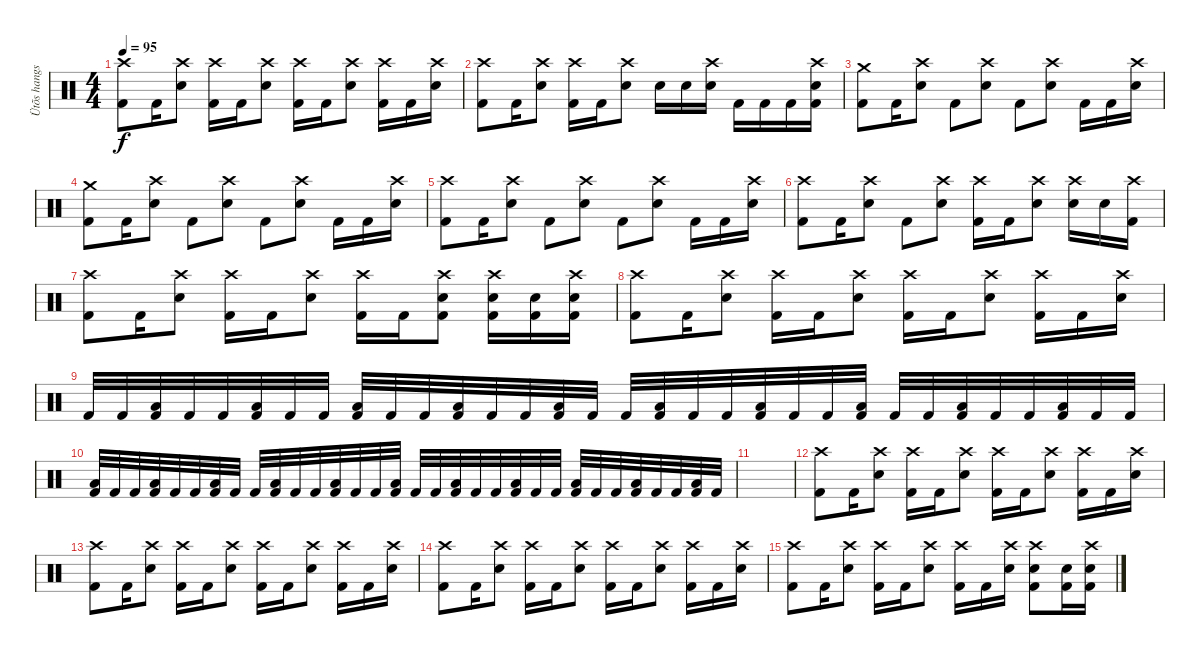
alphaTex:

\track ("Ütõs hangszer" "Ütõs hangs") {instrument percussion}
\staff {score}
\articulation defaults
\ts (4 4)
\tempo 95
\clef neutral
\ks c
("Crash high (hit)" "Kick (hit) 2").8{dy f} "Kick (hit) 2".16 ("Crash high (hit)" "Electric Snare (hit)").8 ("Crash high (hit)" "Kick (hit) 2").16 "Kick (hit) 2".16 ("Crash high (hit)" "Electric Snare (hit)").8 ("Crash high (hit)" "Kick (hit) 2").16 "Kick (hit) 2".16 ("Crash high (hit)" "Electric Snare (hit)").8 ("Crash high (hit)" "Kick (hit) 2").16 "Kick (hit) 2".16 ("Crash high (hit)" "Electric Snare (hit)").16 |
("Crash high (hit)" "Kick (hit) 2").8 "Kick (hit) 2".16 ("Crash high (hit)" "Electric Snare (hit)").8 ("Crash high (hit)" "Kick (hit) 2").16 "Kick (hit) 2".16 ("Crash high (hit)" "Electric Snare (hit)").8 "Electric Snare (hit)".16 "Electric Snare (hit)".16 ("Crash high (hit)" "Electric Snare (hit)").16 "Kick (hit) 2".16 "Kick (hit) 2".16 "Kick (hit) 2".16 ("Crash high (hit)" "Electric Snare (hit)" "Kick (hit) 2").16 |
("Crash medium (hit)" "Kick (hit) 2").8 "Kick (hit) 2".16 ("Crash high (hit)" "Electric Snare (hit)").8 "Kick (hit) 2".8 ("Crash high (hit)" "Electric Snare (hit)").8 "Kick (hit) 2".8 ("Crash high (hit)" "Electric Snare (hit)").8 "Kick (hit) 2".16 "Kick (hit) 2".16 ("Crash high (hit)" "Electric Snare (hit)").16 |
("Crash medium (hit)" "Kick (hit) 2").8 "Kick (hit) 2".16 ("Crash high (hit)" "Electric Snare (hit)").8 "Kick (hit) 2".8 ("Crash high (hit)" "Electric Snare (hit)").8 "Kick (hit) 2".8 ("Crash high (hit)" "Electric Snare (hit)").8 "Kick (hit) 2".16 "Kick (hit) 2".16 ("Crash high (hit)" "Electric Snare (hit)").16 |
("Crash high (hit)" "Kick (hit) 2").8 "Kick (hit) 2".16 ("Crash high (hit)" "Electric Snare (hit)").8 "Kick (hit) 2".8 ("Crash high (hit)" "Electric Snare (hit)").8 "Kick (hit) 2".8 ("Crash high (hit)" "Electric Snare (hit)").8 "Kick (hit) 2".16 "Kick (hit) 2".16 ("Crash high (hit)" "Electric Snare (hit)").16 |
("Crash high (hit)" "Kick (hit) 2").8 "Kick (hit) 2".16 ("Crash high (hit)" "Electric Snare (hit)").8 "Kick (hit) 2".8 ("Crash high (hit)" "Electric Snare (hit)").8 ("Crash high (hit)" "Kick (hit) 2").16 "Kick (hit) 2".16 ("Crash high (hit)" "Electric Snare (hit)").8 ("Crash high (hit)" "Electric Snare (hit)").16 "Electric Snare (hit)".16 ("Crash high (hit)" "Kick (hit) 2").16 |
("Crash high (hit)" "Kick (hit) 2").8 "Kick (hit) 2".16 ("Crash high (hit)" "Electric Snare (hit)").8 ("Crash high (hit)" "Kick (hit) 2").16 "Kick (hit) 2".16 ("Crash high (hit)" "Electric Snare (hit)").8 ("Crash high (hit)" "Kick (hit) 2").16 "Kick (hit) 2".16 ("Crash high (hit)" "Electric Snare (hit)" "Kick (hit) 2").8 ("Crash high (hit)" "Electric Snare (hit)" "Kick (hit) 2").16 ("Electric Snare (hit)" "Kick (hit) 2").16 ("Crash high (hit)" "Electric Snare (hit)" "Kick (hit) 2").16 |
("Crash high (hit)" "Kick (hit) 2").8 "Kick (hit) 2".16 ("Crash high (hit)" "Electric Snare (hit)").8 ("Crash high (hit)" "Kick (hit) 2").16 "Kick (hit) 2".16 ("Crash high (hit)" "Electric Snare (hit)").8 ("Crash high (hit)" "Kick (hit) 2").16 "Kick (hit) 2".16 ("Crash high (hit)" "Electric Snare (hit)").8 ("Crash high (hit)" "Kick (hit) 2").16 "Kick (hit) 2".16 ("Crash high (hit)" "Electric Snare (hit)").16 |
"Kick (hit) 2".32 "Kick (hit) 2".32 ("Low Floor Tom (hit)" "Kick (hit) 2").32 "Kick (hit) 2".32 "Kick (hit) 2".32 ("Low Floor Tom (hit)" "Kick (hit) 2").32 "Kick (hit) 2".32 "Kick (hit) 2".32 ("Low Floor Tom (hit)" "Kick (hit) 2").32 "Kick (hit) 2".32 "Kick (hit) 2".32 ("Low Floor Tom (hit)" "Kick (hit) 2").32 "Kick (hit) 2".32 "Kick (hit) 2".32 ("Low Floor Tom (hit)" "Kick (hit) 2").32 "Kick (hit) 2".32 "Kick (hit) 2".32 ("Low Floor Tom (hit)" "Kick (hit) 2").32 "Kick (hit) 2".32 "Kick (hit) 2".32 ("Low Floor Tom (hit)" "Kick (hit) 2").32 "Kick (hit) 2".32 "Kick (hit) 2".32 ("Low Floor Tom (hit)" "Kick (hit) 2").32 "Kick (hit) 2".32 "Kick (hit) 2".32 ("Low Floor Tom (hit)" "Kick (hit) 2").32 "Kick (hit) 2".32 "Kick (hit) 2".32 ("Low Floor Tom (hit)" "Kick (hit) 2").32 "Kick (hit) 2".32 "Kick (hit) 2".32 |
("Low Floor Tom (hit)" "Kick (hit) 2").32 "Kick (hit) 2".32 "Kick (hit) 2".32 ("Low Floor Tom (hit)" "Kick (hit) 2").32 "Kick (hit) 2".32 "Kick (hit) 2".32 ("Low Floor Tom (hit)" "Kick (hit) 2").32 "Kick (hit) 2".32 "Kick (hit) 2".32 ("Low Floor Tom (hit)" "Kick (hit) 2").32 "Kick (hit) 2".32 "Kick (hit) 2".32 ("Low Floor Tom (hit)" "Kick (hit) 2").32 "Kick (hit) 2".32 "Kick (hit) 2".32 ("Low Floor Tom (hit)" "Kick (hit) 2").32 "Kick (hit) 2".32 "Kick (hit) 2".32 ("Low Floor Tom (hit)" "Kick (hit) 2").32 "Kick (hit) 2".32 "Kick (hit) 2".32 ("Low Floor Tom (hit)" "Kick (hit) 2").32 "Kick (hit) 2".32 "Kick (hit) 2".32 ("Low Floor Tom (hit)" "Kick (hit) 2").32 "Kick (hit) 2".32 "Kick (hit) 2".32 ("Low Floor Tom (hit)" "Kick (hit) 2").32 "Kick (hit) 2".32 "Kick (hit) 2".32 ("Low Floor Tom (hit)" "Kick (hit) 2").32 "Kick (hit) 2".32 |
|
("Crash high (hit)" "Kick (hit) 2").8 "Kick (hit) 2".16 ("Crash high (hit)" "Electric Snare (hit)").8 ("Crash high (hit)" "Kick (hit) 2").16 "Kick (hit) 2".16 ("Crash high (hit)" "Electric Snare (hit)").8 ("Crash high (hit)" "Kick (hit) 2").16 "Kick (hit) 2".16 ("Crash high (hit)" "Electric Snare (hit)").8 ("Crash high (hit)" "Kick (hit) 2").16 "Kick (hit) 2".16 ("Crash high (hit)" "Electric Snare (hit)").16 |
("Crash high (hit)" "Kick (hit) 2").8 "Kick (hit) 2".16 ("Crash high (hit)" "Electric Snare (hit)").8 ("Crash high (hit)" "Kick (hit) 2").16 "Kick (hit) 2".16 ("Crash high (hit)" "Electric Snare (hit)").8 ("Crash high (hit)" "Kick (hit) 2").16 "Kick (hit) 2".16 ("Crash high (hit)" "Electric Snare (hit)").8 ("Crash high (hit)" "Kick (hit) 2").16 "Kick (hit) 2".16 ("Crash high (hit)" "Electric Snare (hit)").16 |
("Crash high (hit)" "Kick (hit) 2").8 "Kick (hit) 2".16 ("Crash high (hit)" "Electric Snare (hit)").8 ("Crash high (hit)" "Kick (hit) 2").16 "Kick (hit) 2".16 ("Crash high (hit)" "Electric Snare (hit)").8 ("Crash high (hit)" "Kick (hit) 2").16 "Kick (hit) 2".16 ("Crash high (hit)" "Electric Snare (hit)").8 ("Crash high (hit)" "Kick (hit) 2").16 "Kick (hit) 2".16 ("Crash high (hit)" "Electric Snare (hit)").16 |
("Crash high (hit)" "Kick (hit) 2").8 "Kick (hit) 2".16 ("Crash high (hit)" "Electric Snare (hit)").8 ("Crash high (hit)" "Kick (hit) 2").16 "Kick (hit) 2".16 ("Crash high (hit)" "Electric Snare (hit)").8 ("Crash high (hit)" "Kick (hit) 2").16 "Kick (hit) 2".16 ("Crash high (hit)" "Electric Snare (hit)").16 ("Crash high (hit)" "Electric Snare (hit)" "Kick (hit) 2").8 ("Electric Snare (hit)" "Kick (hit) 2").16 ("Crash high (hit)" "Electric Snare (hit)" "Kick (hit) 2").16
